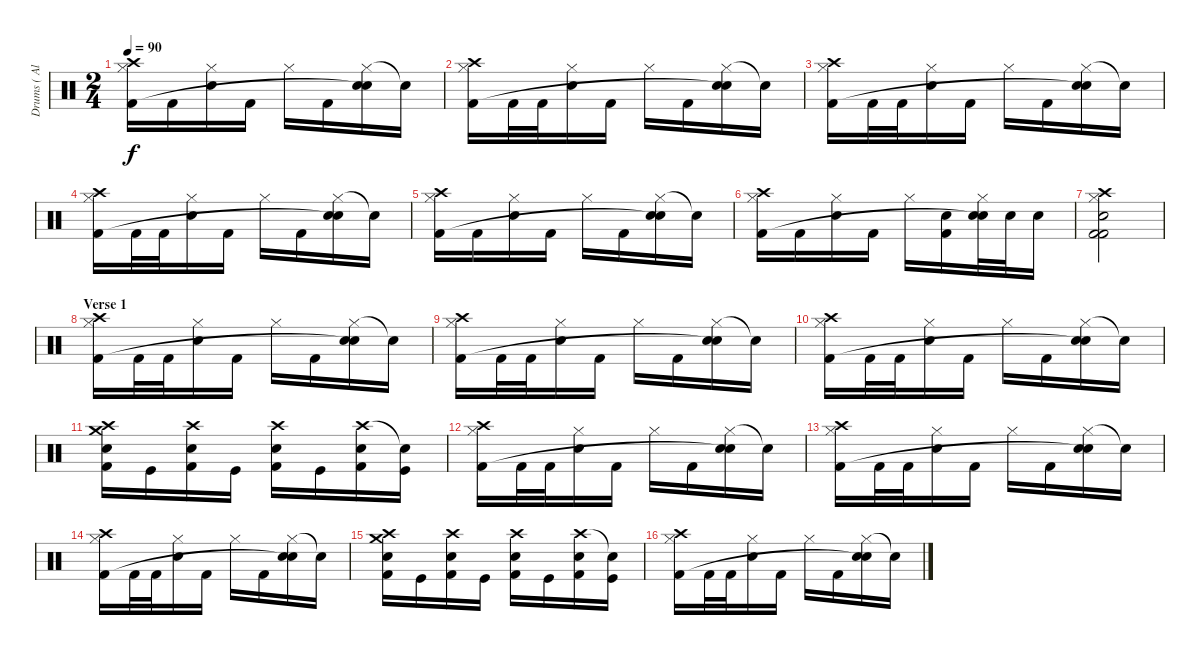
\track ("Drums ( Alex Holzwarth)" "Drums ( Al") {instrument percussion}
\staff {score}
\articulation defaults
\ts (2 4)
\tempo 90
\clef neutral
\ks c
("Crash high (hit)" "Hi-Hat (closed)" "Kick (hit) 2").16{dy f} "Kick (hit) 2".16 ("Hi-Hat (closed)" "Electric Snare (hit)").16 "Kick (hit) 2".16 "Hi-Hat (closed)".16 "Kick (hit) 2".16 ("Hi-Hat (closed)" "Electric Snare (hit)" "Snare (hit)"{t}).16 "Snare (hit)"{t}.16 |
("Crash high (hit)" "Hi-Hat (closed)" "Kick (hit) 2").16 "Kick (hit) 2".32 "Kick (hit) 2".32 ("Hi-Hat (closed)" "Electric Snare (hit)").16 "Kick (hit) 2".16 "Hi-Hat (closed)".16 "Kick (hit) 2".16 ("Hi-Hat (closed)" "Electric Snare (hit)" "Snare (hit)"{t}).16 "Snare (hit)"{t}.16 |
("Crash high (hit)" "Hi-Hat (closed)" "Kick (hit) 2").16 "Kick (hit) 2".32 "Kick (hit) 2".32 ("Hi-Hat (closed)" "Electric Snare (hit)").16 "Kick (hit) 2".16 "Hi-Hat (closed)".16 "Kick (hit) 2".16 ("Hi-Hat (closed)" "Electric Snare (hit)" "Snare (hit)"{t}).16 "Snare (hit)"{t}.16 |
("Crash high (hit)" "Hi-Hat (closed)" "Kick (hit) 2").16 "Kick (hit) 2".32 "Kick (hit) 2".32 ("Hi-Hat (closed)" "Electric Snare (hit)").16 "Kick (hit) 2".16 "Hi-Hat (closed)".16 "Kick (hit) 2".16 ("Hi-Hat (closed)" "Electric Snare (hit)" "Snare (hit)"{t}).16 "Snare (hit)"{t}.16 |
("Crash high (hit)" "Hi-Hat (closed)" "Kick (hit) 2").16 "Kick (hit) 2".16 ("Hi-Hat (closed)" "Electric Snare (hit)").16 "Kick (hit) 2".16 "Hi-Hat (closed)".16 "Kick (hit) 2".16 ("Hi-Hat (closed)" "Electric Snare (hit)" "Snare (hit)"{t}).16 "Snare (hit)"{t}.16 |
("Crash high (hit)" "Hi-Hat (closed)" "Kick (hit) 2").16 "Kick (hit) 2".16 ("Hi-Hat (closed)" "Electric Snare (hit)").16 "Kick (hit) 2".16 "Hi-Hat (closed)".16 ("Electric Snare (hit)" "Kick (hit) 2").16 ("Hi-Hat (closed)" "Electric Snare (hit)" "Snare (hit)"{t}).32 "Electric Snare (hit)".32 "Electric Snare (hit)".16 |
("Crash high (hit)" "Hi-Hat (closed)" "Electric Snare (hit)" "Kick (hit) 2" "Kick (hit) 2").2 |
\section ("" "Verse 1")
("Crash high (hit)" "Hi-Hat (closed)" "Kick (hit) 2").16 "Kick (hit) 2".32 "Kick (hit) 2".32 ("Hi-Hat (closed)" "Electric Snare (hit)").16 "Kick (hit) 2".16 "Hi-Hat (closed)".16 "Kick (hit) 2".16 ("Hi-Hat (closed)" "Electric Snare (hit)" "Snare (hit)"{t}).16 "Snare (hit)"{t}.16 |
("Crash high (hit)" "Hi-Hat (closed)" "Kick (hit) 2").16 "Kick (hit) 2".32 "Kick (hit) 2".32 ("Hi-Hat (closed)" "Electric Snare (hit)").16 "Kick (hit) 2".16 "Hi-Hat (closed)".16 "Kick (hit) 2".16 ("Hi-Hat (closed)" "Electric Snare (hit)" "Snare (hit)"{t}).16 "Snare (hit)"{t}.16 |
("Crash high (hit)" "Hi-Hat (closed)" "Kick (hit) 2").16 "Kick (hit) 2".32 "Kick (hit) 2".32 ("Hi-Hat (closed)" "Electric Snare (hit)").16 "Kick (hit) 2".16 "Hi-Hat (closed)".16 "Kick (hit) 2".16 ("Hi-Hat (closed)" "Electric Snare (hit)" "Snare (hit)"{t}).16 "Snare (hit)"{t}.16 |
("Crash high (hit)" "Crash medium (hit)" "Snare (hit) 2" "Kick (hit) 2").16 "Kick (hit)".16 ("Crash high (hit)" "Snare (hit) 2" "Kick (hit) 2").16 "Kick (hit)".16 ("Crash high (hit)" "Snare (hit) 2" "Kick (hit) 2").16 "Kick (hit)".16 ("Crash high (hit)" "Snare (hit) 2" "Kick (hit) 2").16 ("Snare (hit)"{t} "Kick (hit)").16 |
("Crash high (hit)" "Hi-Hat (closed)" "Kick (hit) 2").16 "Kick (hit) 2".32 "Kick (hit) 2".32 ("Hi-Hat (closed)" "Electric Snare (hit)").16 "Kick (hit) 2".16 "Hi-Hat (closed)".16 "Kick (hit) 2".16 ("Hi-Hat (closed)" "Electric Snare (hit)" "Snare (hit)"{t}).16 "Snare (hit)"{t}.16 |
("Crash high (hit)" "Hi-Hat (closed)" "Kick (hit) 2").16 "Kick (hit) 2".32 "Kick (hit) 2".32 ("Hi-Hat (closed)" "Electric Snare (hit)").16 "Kick (hit) 2".16 "Hi-Hat (closed)".16 "Kick (hit) 2".16 ("Hi-Hat (closed)" "Electric Snare (hit)" "Snare (hit)"{t}).16 "Snare (hit)"{t}.16 |
("Crash high (hit)" "Hi-Hat (closed)" "Kick (hit) 2").16 "Kick (hit) 2".32 "Kick (hit) 2".32 ("Hi-Hat (closed)" "Electric Snare (hit)").16 "Kick (hit) 2".16 "Hi-Hat (closed)".16 "Kick (hit) 2".16 ("Hi-Hat (closed)" "Electric Snare (hit)" "Snare (hit)"{t}).16 "Snare (hit)"{t}.16 |
("Crash high (hit)" "Crash medium (hit)" "Snare (hit) 2" "Kick (hit) 2").16 "Kick (hit)".16 ("Crash high (hit)" "Snare (hit) 2" "Kick (hit) 2").16 "Kick (hit)".16 ("Crash high (hit)" "Snare (hit) 2" "Kick (hit) 2").16 "Kick (hit)".16 ("Crash high (hit)" "Snare (hit) 2" "Kick (hit) 2").16 ("Snare (hit)"{t} "Kick (hit)").16 |
("Crash high (hit)" "Hi-Hat (closed)" "Kick (hit) 2").16 "Kick (hit) 2".32 "Kick (hit) 2".32 ("Hi-Hat (closed)" "Electric Snare (hit)").16 "Kick (hit) 2".16 "Hi-Hat (closed)".16 "Kick (hit) 2".16 ("Hi-Hat (closed)" "Electric Snare (hit)" "Snare (hit)"{t}).16 "Snare (hit)"{t}.16
